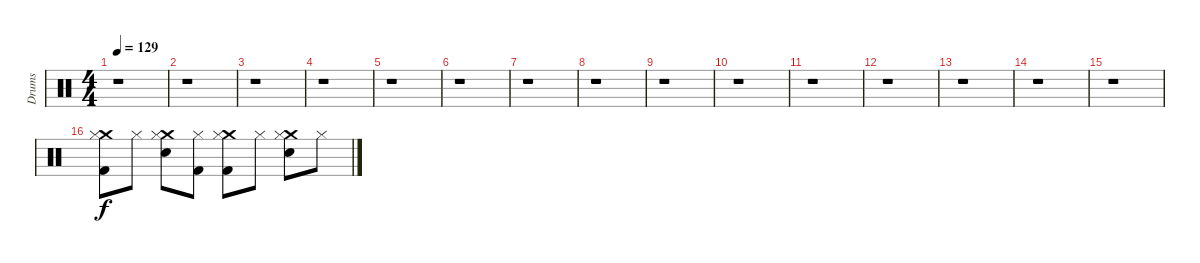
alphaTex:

\track ("Drums" "Drums") {instrument percussion}
\staff {score}
\articulation defaults
\ts (4 4)
\tempo 129
\clef neutral
\ks c
r.1{dy f} |
r.1 |
r.1 |
r.1 |
r.1 |
r.1 |
r.1 |
r.1 |
r.1 |
r.1 |
r.1 |
r.1 |
r.1 |
r.1 |
r.1 |
("Kick (hit) 2" "Crash medium (hit)" "Hi-Hat (closed)").8 "Hi-Hat (closed)".8 ("Electric Snare (hit)" "Crash medium (hit)" "Hi-Hat (closed)").8 ("Kick (hit) 2" "Hi-Hat (closed)").8 ("Kick (hit) 2" "Crash medium (hit)" "Hi-Hat (closed)").8 "Hi-Hat (closed)".8 ("Electric Snare (hit)" "Crash medium (hit)" "Hi-Hat (closed)").8 "Hi-Hat (closed)".8
